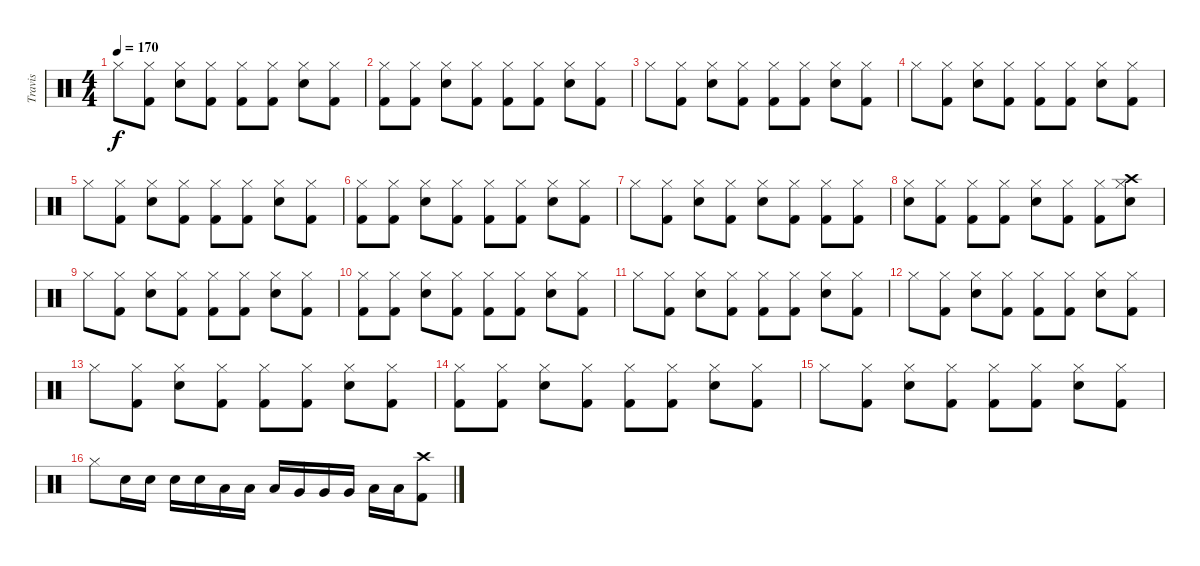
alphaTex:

\track ("Travis" "Travis") {instrument percussion}
\staff {score}
\articulation defaults
\ts (4 4)
\tempo 170
\clef neutral
\ks c "Hi-Hat (closed)".8{dy f}
("Hi-Hat (closed)" "Kick (hit) 2").8 ("Hi-Hat (closed)" "Snare (hit) 2").8 ("Hi-Hat (closed)" "Kick (hit) 2").8 ("Hi-Hat (closed)" "Kick (hit) 2").8 ("Hi-Hat (closed)" "Kick (hit) 2").8 ("Hi-Hat (closed)" "Snare (hit) 2").8 ("Hi-Hat (closed)" "Kick (hit) 2").8 |
("Hi-Hat (closed)" "Kick (hit) 2").8 ("Hi-Hat (closed)" "Kick (hit) 2").8 ("Hi-Hat (closed)" "Snare (hit) 2").8 ("Hi-Hat (closed)" "Kick (hit) 2").8 ("Hi-Hat (closed)" "Kick (hit) 2").8 ("Hi-Hat (closed)" "Kick (hit) 2").8 ("Hi-Hat (closed)" "Snare (hit) 2").8 ("Hi-Hat (closed)" "Kick (hit) 2").8 |
"Hi-Hat (closed)".8 ("Hi-Hat (closed)" "Kick (hit) 2").8 ("Hi-Hat (closed)" "Snare (hit) 2").8 ("Hi-Hat (closed)" "Kick (hit) 2").8 ("Hi-Hat (closed)" "Kick (hit) 2").8 ("Hi-Hat (closed)" "Kick (hit) 2").8 ("Hi-Hat (closed)" "Snare (hit) 2").8 ("Hi-Hat (closed)" "Kick (hit) 2").8 |
"Hi-Hat (closed)".8 ("Hi-Hat (closed)" "Kick (hit) 2").8 ("Hi-Hat (closed)" "Snare (hit) 2").8 ("Hi-Hat (closed)" "Kick (hit) 2").8 ("Hi-Hat (closed)" "Kick (hit) 2").8 ("Hi-Hat (closed)" "Kick (hit) 2").8 ("Hi-Hat (closed)" "Snare (hit) 2").8 ("Hi-Hat (closed)" "Kick (hit) 2").8 |
"Hi-Hat (closed)".8 ("Hi-Hat (closed)" "Kick (hit) 2").8 ("Hi-Hat (closed)" "Snare (hit) 2").8 ("Hi-Hat (closed)" "Kick (hit) 2").8 ("Hi-Hat (closed)" "Kick (hit) 2").8 ("Hi-Hat (closed)" "Kick (hit) 2").8 ("Hi-Hat (closed)" "Snare (hit) 2").8 ("Hi-Hat (closed)" "Kick (hit) 2").8 |
("Hi-Hat (closed)" "Kick (hit) 2").8 ("Hi-Hat (closed)" "Kick (hit) 2").8 ("Hi-Hat (closed)" "Snare (hit) 2").8 ("Hi-Hat (closed)" "Kick (hit) 2").8 ("Hi-Hat (closed)" "Kick (hit) 2").8 ("Hi-Hat (closed)" "Kick (hit) 2").8 ("Hi-Hat (closed)" "Snare (hit) 2").8 ("Hi-Hat (closed)" "Kick (hit) 2").8 |
"Hi-Hat (closed)".8 ("Hi-Hat (closed)" "Kick (hit) 2").8 ("Hi-Hat (closed)" "Snare (hit) 2").8 ("Hi-Hat (closed)" "Kick (hit) 2").8 ("Hi-Hat (closed)" "Snare (hit) 2").8 ("Hi-Hat (closed)" "Kick (hit) 2").8 ("Hi-Hat (closed)" "Kick (hit) 2").8 ("Hi-Hat (closed)" "Kick (hit) 2").8 |
("Hi-Hat (closed)" "Snare (hit) 2").8 ("Hi-Hat (closed)" "Kick (hit) 2").8 ("Hi-Hat (closed)" "Kick (hit) 2").8 ("Hi-Hat (closed)" "Kick (hit) 2").8 ("Hi-Hat (closed)" "Snare (hit) 2").8 ("Hi-Hat (closed)" "Kick (hit) 2").8 ("Hi-Hat (closed)" "Kick (hit) 2").8 ("Crash high (hit)" "Hi-Hat (closed)" "Snare (hit) 2").8 |
"Hi-Hat (closed)".8 ("Hi-Hat (closed)" "Kick (hit) 2").8 ("Hi-Hat (closed)" "Snare (hit) 2").8 ("Hi-Hat (closed)" "Kick (hit) 2").8 ("Hi-Hat (closed)" "Kick (hit) 2").8 ("Hi-Hat (closed)" "Kick (hit) 2").8 ("Hi-Hat (closed)" "Snare (hit) 2").8 ("Hi-Hat (closed)" "Kick (hit) 2").8 |
("Hi-Hat (closed)" "Kick (hit) 2").8 ("Hi-Hat (closed)" "Kick (hit) 2").8 ("Hi-Hat (closed)" "Snare (hit) 2").8 ("Hi-Hat (closed)" "Kick (hit) 2").8 ("Hi-Hat (closed)" "Kick (hit) 2").8 ("Hi-Hat (closed)" "Kick (hit) 2").8 ("Hi-Hat (closed)" "Snare (hit) 2").8 ("Hi-Hat (closed)" "Kick (hit) 2").8 |
"Hi-Hat (closed)".8 ("Hi-Hat (closed)" "Kick (hit) 2").8 ("Hi-Hat (closed)" "Snare (hit) 2").8 ("Hi-Hat (closed)" "Kick (hit) 2").8 ("Hi-Hat (closed)" "Kick (hit) 2").8 ("Hi-Hat (closed)" "Kick (hit) 2").8 ("Hi-Hat (closed)" "Snare (hit) 2").8 ("Hi-Hat (closed)" "Kick (hit) 2").8 |
"Hi-Hat (closed)".8 ("Hi-Hat (closed)" "Kick (hit) 2").8 ("Hi-Hat (closed)" "Snare (hit) 2").8 ("Hi-Hat (closed)" "Kick (hit) 2").8 ("Hi-Hat (closed)" "Kick (hit) 2").8 ("Hi-Hat (closed)" "Kick (hit) 2").8 ("Hi-Hat (closed)" "Snare (hit) 2").8 ("Hi-Hat (closed)" "Kick (hit) 2").8 |
"Hi-Hat (closed)".8 ("Hi-Hat (closed)" "Kick (hit) 2").8 ("Hi-Hat (closed)" "Snare (hit) 2").8 ("Hi-Hat (closed)" "Kick (hit) 2").8 ("Hi-Hat (closed)" "Kick (hit) 2").8 ("Hi-Hat (closed)" "Kick (hit) 2").8 ("Hi-Hat (closed)" "Snare (hit) 2").8 ("Hi-Hat (closed)" "Kick (hit) 2").8 |
("Hi-Hat (closed)" "Kick (hit) 2").8 ("Hi-Hat (closed)" "Kick (hit) 2").8 ("Hi-Hat (closed)" "Snare (hit) 2").8 ("Hi-Hat (closed)" "Kick (hit) 2").8 ("Hi-Hat (closed)" "Kick (hit) 2").8 ("Hi-Hat (closed)" "Kick (hit) 2").8 ("Hi-Hat (closed)" "Snare (hit) 2").8 ("Hi-Hat (closed)" "Kick (hit) 2").8 |
"Hi-Hat (closed)".8 ("Hi-Hat (closed)" "Kick (hit) 2").8 ("Hi-Hat (closed)" "Snare (hit) 2").8 ("Hi-Hat (closed)" "Kick (hit) 2").8 ("Hi-Hat (closed)" "Kick (hit) 2").8 ("Hi-Hat (closed)" "Kick (hit) 2").8 ("Hi-Hat (closed)" "Snare (hit) 2").8 ("Hi-Hat (closed)" "Kick (hit) 2").8 |
"Hi-Hat (closed)".8 "Snare (hit) 2".16 "Snare (hit) 2".16 "Snare (hit) 2".16 "Snare (hit) 2".16 "Low Tom (hit)".16 "Low Tom (hit)".16 "Low Tom (hit)".16 "Very Low Tom (hit)".16 "Very Low Tom (hit)".16 "Very Low Tom (hit)".16 "Low Floor Tom (hit)".16 "Low Floor Tom (hit)".16 ("Crash high (hit)" "Kick (hit) 2").8
